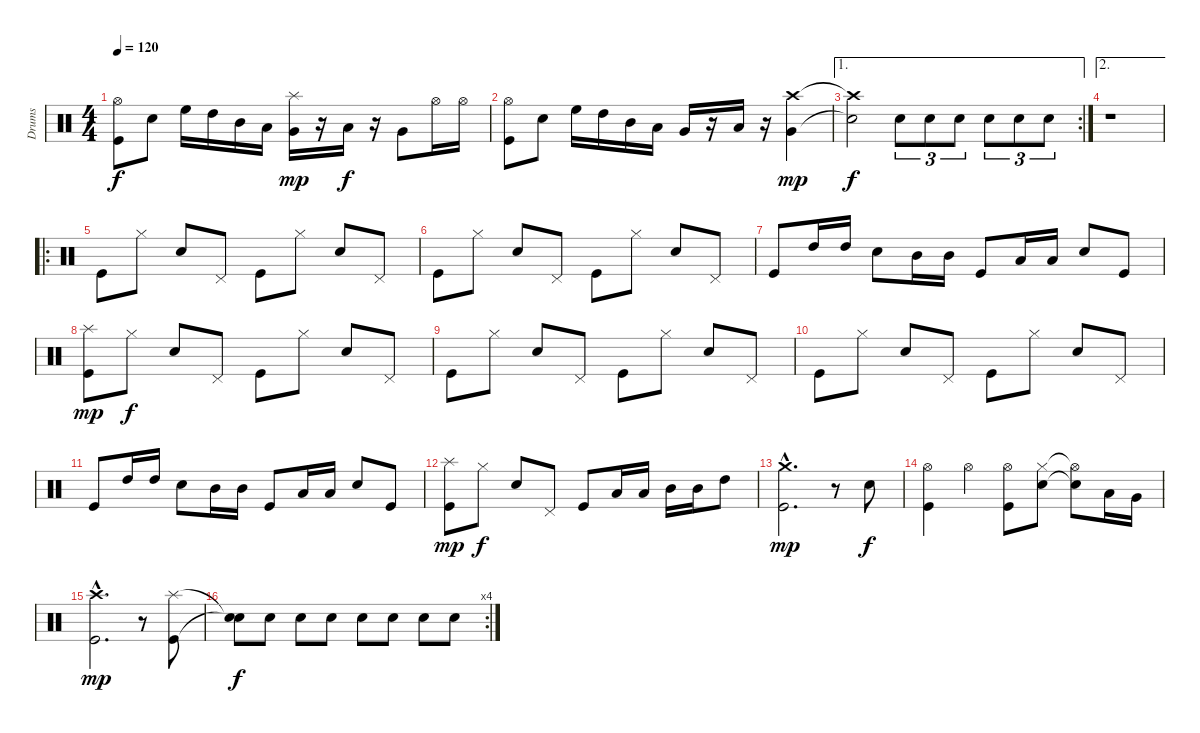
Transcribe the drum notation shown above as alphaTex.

\track ("Drums" "Drums") {instrument percussion}
\staff {score}
\articulation defaults
\ts (4 4)
\tempo 120
\clef neutral
\ks c
("Hi-Hat (open)" "Kick (hit)").8{dy f} "Snare (hit) 2".8 "High Floor Tom (hit)".16 "High Tom (hit)".16 "Mid Tom (hit)".16 "Low Tom (hit)".16 ("Splash (hit)" "Very Low Tom (hit)").16{dy mp} r.16 "Low Floor Tom (hit)".16{dy f} r.16 "Very Low Tom (hit)".8 "Hi-Hat (open)".16 "Hi-Hat (open)".16 |
("Hi-Hat (open)" "Kick (hit)").8 "Snare (hit) 2".8 "High Floor Tom (hit)".16 "High Tom (hit)".16 "Mid Tom (hit)".16 "Low Tom (hit)".16 "Very Low Tom (hit)".16 r.16 "Low Floor Tom (hit)".16 r.16 ("Crash high (hit)" "Very Low Tom (hit)").4{dy mp} |
\ae 1
\rc 2
("Crash high (hit)"{t} "Snare (hit)"{t}).2{dy f} "Snare (hit) 2".8{tu (3 2)} "Snare (hit) 2".8{tu (3 2)} "Snare (hit) 2".8{tu (3 2)} "Snare (hit) 2".8{tu (3 2)} "Snare (hit) 2".8{tu (3 2)} "Snare (hit) 2".8{tu (3 2)} |
\ae 2
r.1 |
\ro "Kick (hit)".8 "Hi-Hat (closed)".8 "Snare (hit) 2".8 "Pedal Hi-Hat (hit)".8 "Kick (hit)".8 "Hi-Hat (closed)".8 "Snare (hit) 2".8 "Pedal Hi-Hat (hit)".8
|
"Kick (hit)".8 "Hi-Hat (closed)".8 "Snare (hit) 2".8 "Pedal Hi-Hat (hit)".8 "Kick (hit)".8 "Hi-Hat (closed)".8 "Snare (hit) 2".8 "Pedal Hi-Hat (hit)".8 |
"Kick (hit)".8 "High Tom (hit)".16 "High Tom (hit)".16 "Snare (hit) 2".8 "Mid Tom (hit)".16 "Mid Tom (hit)".16 "Kick (hit)".8 "Low Tom (hit)".16 "Low Tom (hit)".16 "Snare (hit) 2".8 "Kick (hit)".8 |
("Splash (hit)" "Kick (hit)").8{dy mp} "Hi-Hat (closed)".8{dy f} "Snare (hit) 2".8 "Pedal Hi-Hat (hit)".8 "Kick (hit)".8 "Hi-Hat (closed)".8 "Snare (hit) 2".8 "Pedal Hi-Hat (hit)".8 |
"Kick (hit)".8 "Hi-Hat (closed)".8 "Snare (hit) 2".8 "Pedal Hi-Hat (hit)".8 "Kick (hit)".8 "Hi-Hat (closed)".8 "Snare (hit) 2".8 "Pedal Hi-Hat (hit)".8 |
"Kick (hit)".8 "Hi-Hat (closed)".8 "Snare (hit) 2".8 "Pedal Hi-Hat (hit)".8 "Kick (hit)".8 "Hi-Hat (closed)".8 "Snare (hit) 2".8 "Pedal Hi-Hat (hit)".8 |
"Kick (hit)".8 "High Tom (hit)".16 "High Tom (hit)".16 "Snare (hit) 2".8 "Mid Tom (hit)".16 "Mid Tom (hit)".16 "Kick (hit)".8 "Low Tom (hit)".16 "Low Tom (hit)".16 "Snare (hit) 2".8 "Kick (hit)".8 |
("Splash (hit)" "Kick (hit)").8{dy mp} "Hi-Hat (closed)".8{dy f} "Snare (hit) 2".8 "Pedal Hi-Hat (hit)".8 "Kick (hit)".8 "Low Tom (hit)".16 "Low Tom (hit)".16 "Mid Tom (hit)".16 "Mid Tom (hit)".16 "High Tom (hit)".8 |
("Crash medium (hit)"{hac} "Kick (hit)"{hac}).2{d dy mp} r.8 "Snare (hit) 2".8{dy f} |
("Hi-Hat (open)" "Kick (hit)").4 "Hi-Hat (open)".4 ("Hi-Hat (open)" "Kick (hit)").8 ("Hi-Hat (closed)" "Electric Snare (hit)").8 ("Hi-Hat (open)"{t} "Snare (hit)"{t}).8 "Low Tom (hit)".16 "Very Low Tom (hit)".16 |
("Crash high (hit)"{hac} "Kick (hit)"{hac}).2{d dy mp} r.8 ("Splash (hit)" "Kick (hit)").8 |
\rc 4
("Snare (hit)"{t} "Snare (hit)"{t}).8{dy f} "Snare (hit) 2".8 "Snare (hit) 2".8 "Snare (hit) 2".8 "Snare (hit) 2".8 "Snare (hit) 2".8 "Snare (hit) 2".8 "Snare (hit) 2".8
